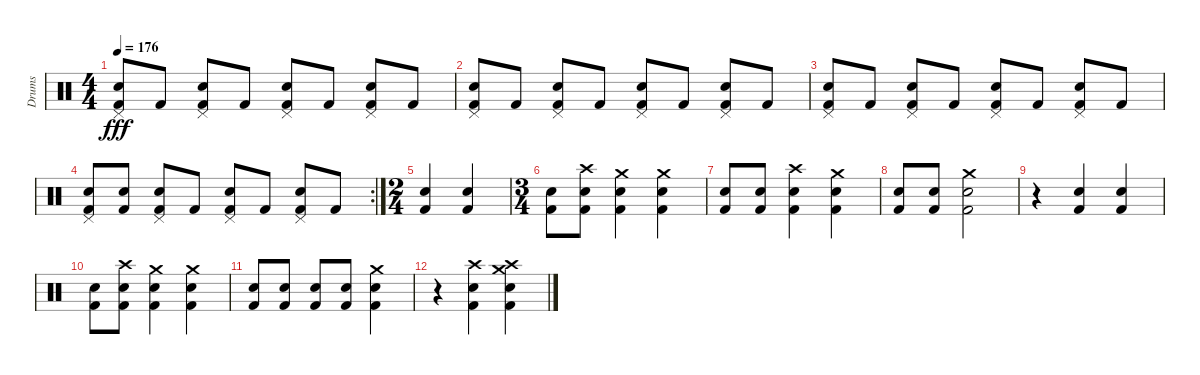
\track ("Drums" "Drums") {instrument percussion}
\staff {score}
\articulation defaults
\ts (4 4)
\tempo 176
\clef neutral
\ks c
("Pedal Hi-Hat (hit)" "Snare (hit) 2" "Kick (hit) 2").8{dy fff} "Kick (hit) 2".8 ("Snare (hit) 2" "Pedal Hi-Hat (hit)" "Kick (hit) 2").8 "Kick (hit) 2".8 ("Snare (hit) 2" "Pedal Hi-Hat (hit)" "Kick (hit) 2").8 "Kick (hit) 2".8 ("Pedal Hi-Hat (hit)" "Snare (hit) 2" "Kick (hit) 2").8 "Kick (hit) 2".8 |
("Pedal Hi-Hat (hit)" "Snare (hit) 2" "Kick (hit) 2").8 "Kick (hit) 2".8 ("Snare (hit) 2" "Pedal Hi-Hat (hit)" "Kick (hit) 2").8 "Kick (hit) 2".8 ("Snare (hit) 2" "Pedal Hi-Hat (hit)" "Kick (hit) 2").8 "Kick (hit) 2".8 ("Pedal Hi-Hat (hit)" "Snare (hit) 2" "Kick (hit) 2").8 "Kick (hit) 2".8 |
("Pedal Hi-Hat (hit)" "Snare (hit) 2" "Kick (hit) 2").8 "Kick (hit) 2".8 ("Snare (hit) 2" "Pedal Hi-Hat (hit)" "Kick (hit) 2").8 "Kick (hit) 2".8 ("Snare (hit) 2" "Pedal Hi-Hat (hit)" "Kick (hit) 2").8 "Kick (hit) 2".8 ("Pedal Hi-Hat (hit)" "Snare (hit) 2" "Kick (hit) 2").8 "Kick (hit) 2".8 |
\rc 2
("Pedal Hi-Hat (hit)" "Snare (hit) 2" "Kick (hit) 2").8 ("Snare (hit) 2" "Kick (hit) 2").8 ("Snare (hit) 2" "Pedal Hi-Hat (hit)" "Kick (hit) 2").8 "Kick (hit) 2".8 ("Snare (hit) 2" "Pedal Hi-Hat (hit)" "Kick (hit) 2").8 "Kick (hit) 2".8 ("Pedal Hi-Hat (hit)" "Snare (hit) 2" "Kick (hit) 2").8 "Kick (hit) 2".8 |
\ts (2 4)
("Snare (hit) 2" "Kick (hit) 2").4 ("Snare (hit) 2" "Kick (hit) 2").4 |
\ts (3 4)
("Snare (hit) 2" "Kick (hit) 2").8 ("Snare (hit) 2" "Kick (hit) 2" "Crash high (hit)").8 ("Snare (hit) 2" "Kick (hit) 2" "Crash medium (hit)").4 ("Snare (hit) 2" "Kick (hit) 2" "Crash medium (hit)").4 |
("Snare (hit) 2" "Kick (hit) 2").8 ("Snare (hit) 2" "Kick (hit) 2").8 ("Snare (hit) 2" "Kick (hit) 2" "Crash high (hit)").4 ("Snare (hit) 2" "Kick (hit) 2" "Crash medium (hit)").4 |
("Snare (hit) 2" "Kick (hit) 2").8 ("Snare (hit) 2" "Kick (hit) 2").8 ("Snare (hit) 2" "Kick (hit) 2" "Crash medium (hit)").2 |
r.4 ("Snare (hit) 2" "Kick (hit) 2").4 ("Snare (hit) 2" "Kick (hit) 2").4 |
("Snare (hit) 2" "Kick (hit) 2").8 ("Snare (hit) 2" "Kick (hit) 2" "Crash high (hit)").8 ("Snare (hit) 2" "Kick (hit) 2" "Crash medium (hit)").4 ("Snare (hit) 2" "Kick (hit) 2" "Crash medium (hit)").4 |
("Snare (hit) 2" "Kick (hit) 2").8 ("Snare (hit) 2" "Kick (hit) 2").8 ("Snare (hit) 2" "Kick (hit) 2").8 ("Snare (hit) 2" "Kick (hit) 2").8 ("Snare (hit) 2" "Kick (hit) 2" "Crash medium (hit)").4 |
r.4 ("Snare (hit) 2" "Kick (hit) 2" "Crash high (hit)").4 ("Snare (hit) 2" "Kick (hit) 2" "Crash high (hit)" "Crash medium (hit)").4
